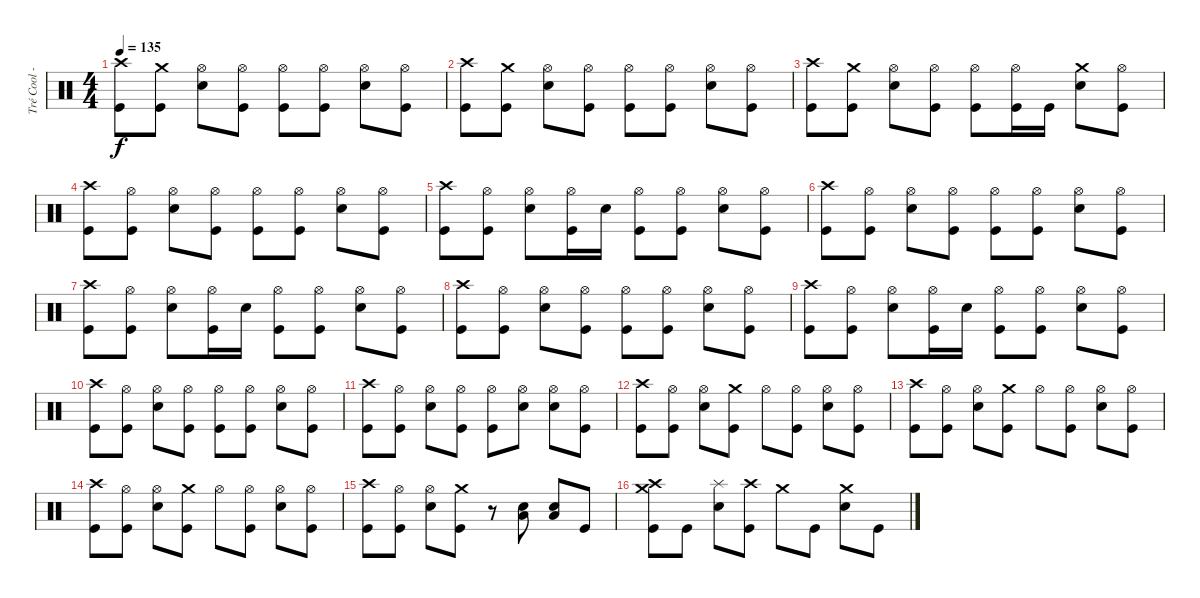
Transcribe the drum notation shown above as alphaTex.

\track ("Tré Cool - Drums" "Tré Cool -") {instrument percussion}
\staff {score}
\articulation defaults
\ts (4 4)
\tempo 135
\clef neutral
\ks c
("Crash high (hit)" "Kick (hit)").8{dy f} ("Crash medium (hit)" "Kick (hit)").8 ("Hi-Hat (open)" "Electric Snare (hit)").8 ("Hi-Hat (open)" "Kick (hit)").8 ("Hi-Hat (open)" "Kick (hit)").8 ("Hi-Hat (open)" "Kick (hit)").8 ("Hi-Hat (open)" "Electric Snare (hit)").8 ("Hi-Hat (open)" "Kick (hit)").8 |
("Crash high (hit)" "Kick (hit)").8 ("Crash medium (hit)" "Kick (hit)").8 ("Hi-Hat (open)" "Electric Snare (hit)").8 ("Hi-Hat (open)" "Kick (hit)").8 ("Hi-Hat (open)" "Kick (hit)").8 ("Hi-Hat (open)" "Kick (hit)").8 ("Hi-Hat (open)" "Electric Snare (hit)").8 ("Hi-Hat (open)" "Kick (hit)").8 |
("Crash high (hit)" "Kick (hit)").8 ("Crash medium (hit)" "Kick (hit)").8 ("Hi-Hat (open)" "Electric Snare (hit)").8 ("Hi-Hat (open)" "Kick (hit)").8 ("Hi-Hat (open)" "Kick (hit)").8 ("Hi-Hat (open)" "Kick (hit)").16 "Kick (hit)".16 ("Crash medium (hit)" "Electric Snare (hit)").8 ("Hi-Hat (open)" "Kick (hit)").8 |
("Crash high (hit)" "Kick (hit)").8 ("Hi-Hat (open)" "Kick (hit)").8 ("Hi-Hat (open)" "Electric Snare (hit)").8 ("Hi-Hat (open)" "Kick (hit)").8 ("Hi-Hat (open)" "Kick (hit)").8 ("Hi-Hat (open)" "Kick (hit)").8 ("Hi-Hat (open)" "Electric Snare (hit)").8 ("Hi-Hat (open)" "Kick (hit)").8 |
("Crash high (hit)" "Kick (hit)").8 ("Hi-Hat (open)" "Kick (hit)").8 ("Hi-Hat (open)" "Electric Snare (hit)").8 ("Hi-Hat (open)" "Kick (hit)").16 "Electric Snare (hit)".16 ("Hi-Hat (open)" "Kick (hit)").8 ("Hi-Hat (open)" "Kick (hit)").8 ("Hi-Hat (open)" "Electric Snare (hit)").8 ("Hi-Hat (open)" "Kick (hit)").8 |
("Crash high (hit)" "Kick (hit)").8 ("Hi-Hat (open)" "Kick (hit)").8 ("Hi-Hat (open)" "Electric Snare (hit)").8 ("Hi-Hat (open)" "Kick (hit)").8 ("Hi-Hat (open)" "Kick (hit)").8 ("Hi-Hat (open)" "Kick (hit)").8 ("Hi-Hat (open)" "Electric Snare (hit)").8 ("Hi-Hat (open)" "Kick (hit)").8 |
("Crash high (hit)" "Kick (hit)").8 ("Hi-Hat (open)" "Kick (hit)").8 ("Hi-Hat (open)" "Electric Snare (hit)").8 ("Hi-Hat (open)" "Kick (hit)").16 "Electric Snare (hit)".16 ("Hi-Hat (open)" "Kick (hit)").8 ("Hi-Hat (open)" "Kick (hit)").8 ("Hi-Hat (open)" "Electric Snare (hit)").8 ("Hi-Hat (open)" "Kick (hit)").8 |
("Crash high (hit)" "Kick (hit)").8 ("Hi-Hat (open)" "Kick (hit)").8 ("Hi-Hat (open)" "Electric Snare (hit)").8 ("Hi-Hat (open)" "Kick (hit)").8 ("Hi-Hat (open)" "Kick (hit)").8 ("Hi-Hat (open)" "Kick (hit)").8 ("Hi-Hat (open)" "Electric Snare (hit)").8 ("Hi-Hat (open)" "Kick (hit)").8 |
("Crash high (hit)" "Kick (hit)").8 ("Hi-Hat (open)" "Kick (hit)").8 ("Hi-Hat (open)" "Electric Snare (hit)").8 ("Hi-Hat (open)" "Kick (hit)").16 "Electric Snare (hit)".16 ("Hi-Hat (open)" "Kick (hit)").8 ("Hi-Hat (open)" "Kick (hit)").8 ("Hi-Hat (open)" "Electric Snare (hit)").8 ("Hi-Hat (open)" "Kick (hit)").8 |
("Crash high (hit)" "Kick (hit)").8 ("Hi-Hat (open)" "Kick (hit)").8 ("Hi-Hat (open)" "Electric Snare (hit)").8 ("Hi-Hat (open)" "Kick (hit)").8 ("Hi-Hat (open)" "Kick (hit)").8 ("Hi-Hat (open)" "Kick (hit)").8 ("Hi-Hat (open)" "Electric Snare (hit)").8 ("Hi-Hat (open)" "Kick (hit)").8 |
("Crash high (hit)" "Kick (hit)").8 ("Hi-Hat (open)" "Kick (hit)").8 ("Hi-Hat (open)" "Electric Snare (hit)").8 ("Hi-Hat (open)" "Kick (hit)").8 ("Hi-Hat (open)" "Kick (hit)").8 ("Hi-Hat (open)" "Electric Snare (hit)").8 ("Hi-Hat (open)" "Electric Snare (hit)").8 ("Hi-Hat (open)" "Kick (hit)").8 |
("Crash high (hit)" "Kick (hit)").8 ("Hi-Hat (open)" "Kick (hit)").8 ("Hi-Hat (open)" "Electric Snare (hit)").8 ("Crash medium (hit)" "Kick (hit)").8 "Hi-Hat (open)".8 ("Hi-Hat (open)" "Kick (hit)").8 ("Hi-Hat (open)" "Electric Snare (hit)").8 ("Hi-Hat (open)" "Kick (hit)").8 |
("Crash high (hit)" "Kick (hit)").8 ("Hi-Hat (open)" "Kick (hit)").8 ("Hi-Hat (open)" "Electric Snare (hit)").8 ("Crash medium (hit)" "Kick (hit)").8 "Hi-Hat (open)".8 ("Hi-Hat (open)" "Kick (hit)").8 ("Hi-Hat (open)" "Electric Snare (hit)").8 ("Hi-Hat (open)" "Kick (hit)").8 |
("Crash high (hit)" "Kick (hit)").8 ("Hi-Hat (open)" "Kick (hit)").8 ("Hi-Hat (open)" "Electric Snare (hit)").8 ("Crash medium (hit)" "Kick (hit)").8 "Hi-Hat (open)".8 ("Hi-Hat (open)" "Kick (hit)").8 ("Hi-Hat (open)" "Electric Snare (hit)").8 ("Hi-Hat (open)" "Kick (hit)").8 |
("Crash high (hit)" "Kick (hit)").8 ("Hi-Hat (open)" "Kick (hit)").8 ("Hi-Hat (open)" "Electric Snare (hit)").8 ("Crash medium (hit)" "Kick (hit)").8 r.8 ("Low Floor Tom (hit)" "Electric Snare (hit)").8 ("Low Floor Tom (hit)" "Electric Snare (hit)").8 "Kick (hit)".8 |
("Crash medium (hit)" "Crash high (hit)" "Kick (hit)").8 "Kick (hit)".8 ("Splash (hit)" "Electric Snare (hit)").8 ("Crash high (hit)" "Kick (hit)").8 "Crash medium (hit)".8 "Kick (hit)".8 ("Crash medium (hit)" "Electric Snare (hit)").8 "Kick (hit)".8
